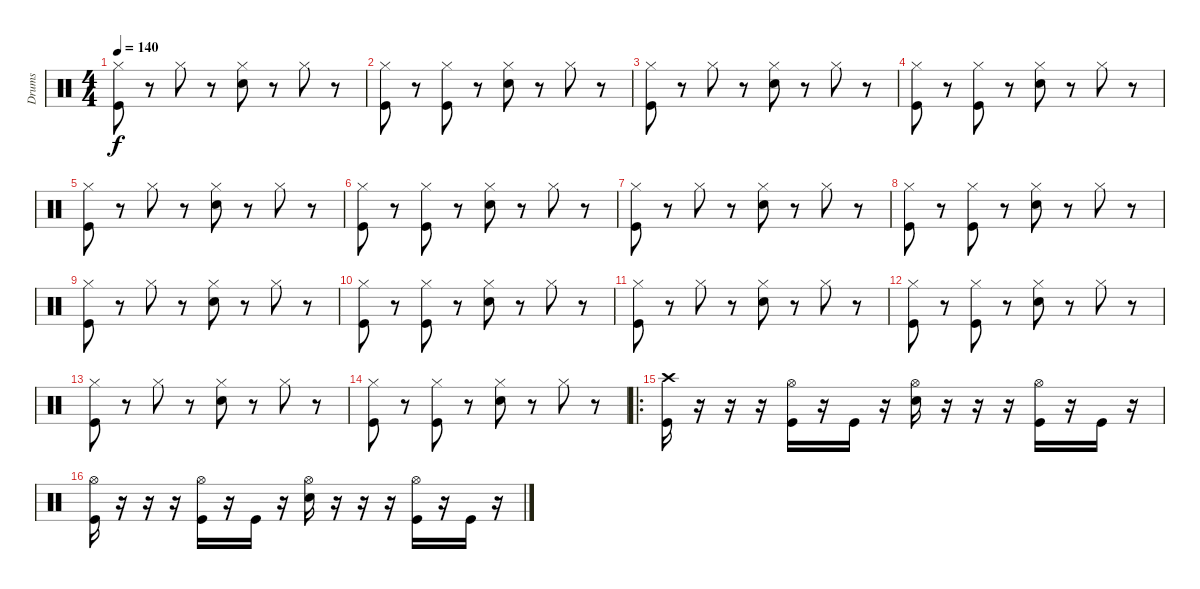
\track ("Drums" "Drums") {instrument percussion}
\staff {score}
\articulation defaults
\ts (4 4)
\tempo 140
\clef neutral
\ks c
("Hi-Hat (closed)" "Kick (hit)").8{dy f} r.8 "Hi-Hat (closed)".8 r.8 ("Hi-Hat (closed)" "Snare (hit) 2").8 r.8 "Hi-Hat (closed)".8 r.8 |
("Hi-Hat (closed)" "Kick (hit)").8 r.8 ("Hi-Hat (closed)" "Kick (hit)").8 r.8 ("Hi-Hat (closed)" "Snare (hit) 2").8 r.8 "Hi-Hat (closed)".8 r.8 |
("Hi-Hat (closed)" "Kick (hit)").8 r.8 "Hi-Hat (closed)".8 r.8 ("Hi-Hat (closed)" "Snare (hit) 2").8 r.8 "Hi-Hat (closed)".8 r.8 |
("Hi-Hat (closed)" "Kick (hit)").8 r.8 ("Hi-Hat (closed)" "Kick (hit)").8 r.8 ("Hi-Hat (closed)" "Snare (hit) 2").8 r.8 "Hi-Hat (closed)".8 r.8 |
("Hi-Hat (closed)" "Kick (hit)").8 r.8 "Hi-Hat (closed)".8 r.8 ("Hi-Hat (closed)" "Snare (hit) 2").8 r.8 "Hi-Hat (closed)".8 r.8 |
("Hi-Hat (closed)" "Kick (hit)").8 r.8 ("Hi-Hat (closed)" "Kick (hit)").8 r.8 ("Hi-Hat (closed)" "Snare (hit) 2").8 r.8 "Hi-Hat (closed)".8 r.8 |
("Hi-Hat (closed)" "Kick (hit)").8 r.8 "Hi-Hat (closed)".8 r.8 ("Hi-Hat (closed)" "Snare (hit) 2").8 r.8 "Hi-Hat (closed)".8 r.8 |
("Hi-Hat (closed)" "Kick (hit)").8 r.8 ("Hi-Hat (closed)" "Kick (hit)").8 r.8 ("Hi-Hat (closed)" "Snare (hit) 2").8 r.8 "Hi-Hat (closed)".8 r.8 |
("Hi-Hat (closed)" "Kick (hit)").8 r.8 "Hi-Hat (closed)".8 r.8 ("Hi-Hat (closed)" "Snare (hit) 2").8 r.8 "Hi-Hat (closed)".8 r.8 |
("Hi-Hat (closed)" "Kick (hit)").8 r.8 ("Hi-Hat (closed)" "Kick (hit)").8 r.8 ("Hi-Hat (closed)" "Snare (hit) 2").8 r.8 "Hi-Hat (closed)".8 r.8 |
("Hi-Hat (closed)" "Kick (hit)").8 r.8 "Hi-Hat (closed)".8 r.8 ("Hi-Hat (closed)" "Snare (hit) 2").8 r.8 "Hi-Hat (closed)".8 r.8 |
("Hi-Hat (closed)" "Kick (hit)").8 r.8 ("Hi-Hat (closed)" "Kick (hit)").8 r.8 ("Hi-Hat (closed)" "Snare (hit) 2").8 r.8 "Hi-Hat (closed)".8 r.8 |
("Hi-Hat (closed)" "Kick (hit)").8 r.8 "Hi-Hat (closed)".8 r.8 ("Hi-Hat (closed)" "Snare (hit) 2").8 r.8 "Hi-Hat (closed)".8 r.8 |
("Hi-Hat (closed)" "Kick (hit)").8 r.8 ("Hi-Hat (closed)" "Kick (hit)").8 r.8 ("Hi-Hat (closed)" "Snare (hit) 2").8 r.8 "Hi-Hat (closed)".8 r.8 |
\ro
("Crash high (hit)" "Kick (hit)").16 r.16 r.16 r.16 ("Hi-Hat (open)" "Kick (hit)").16 r.16 "Kick (hit)".16 r.16 ("Hi-Hat (open)" "Snare (hit) 2").16 r.16 r.16 r.16 ("Hi-Hat (open)" "Kick (hit)").16 r.16 "Kick (hit)".16 r.16 |
("Hi-Hat (open)" "Kick (hit)").16 r.16 r.16 r.16 ("Hi-Hat (open)" "Kick (hit)").16 r.16 "Kick (hit)".16 r.16 ("Hi-Hat (open)" "Snare (hit) 2").16 r.16 r.16 r.16 ("Hi-Hat (open)" "Kick (hit)").16 r.16 "Kick (hit)".16 r.16
